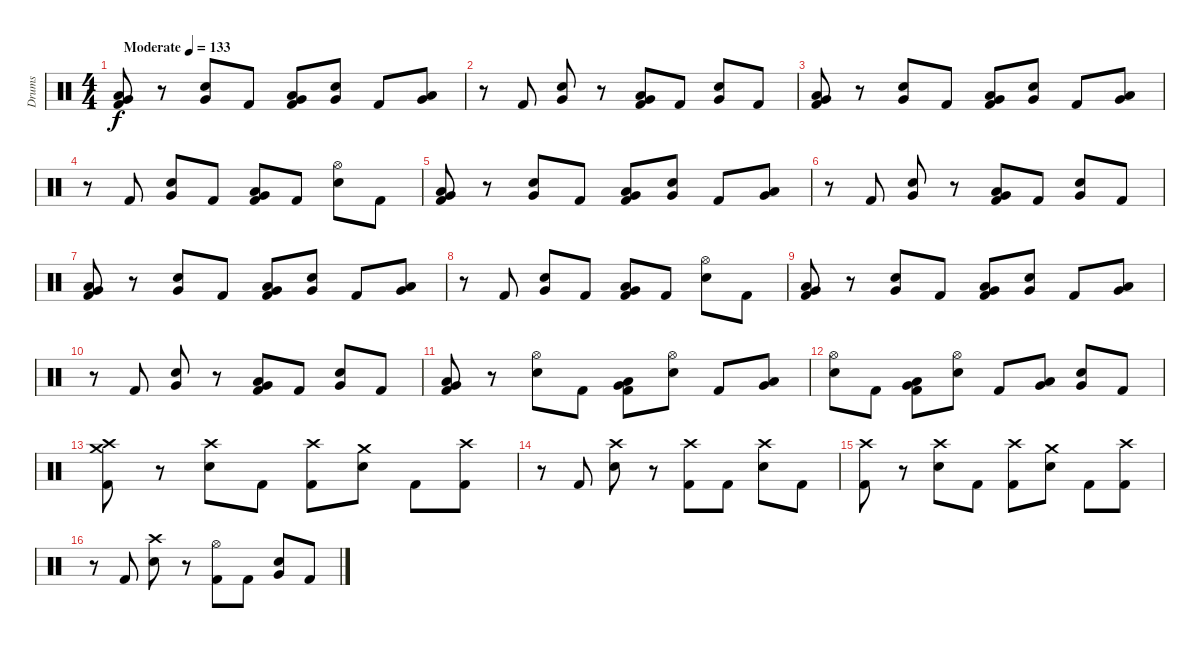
\track ("Drums" "Drums") {instrument percussion}
\staff {score}
\articulation defaults
\ts (4 4)
\tempo (133 "Moderate")
\clef neutral
\ks c
("Very Low Tom (hit)" "Low Tom (hit)" "Kick (hit) 2").8{dy f} r.8 ("Very Low Tom (hit)" "Electric Snare (hit)").8 "Kick (hit) 2".8 ("Very Low Tom (hit)" "Low Tom (hit)" "Kick (hit) 2").8 ("Very Low Tom (hit)" "Electric Snare (hit)").8 "Kick (hit) 2".8 ("Low Tom (hit)" "Very Low Tom (hit)").8 |
r.8 "Kick (hit) 2".8 ("Very Low Tom (hit)" "Electric Snare (hit)").8 r.8 ("Low Tom (hit)" "Very Low Tom (hit)" "Kick (hit) 2").8 "Kick (hit) 2".8 ("Very Low Tom (hit)" "Electric Snare (hit)").8 "Kick (hit) 2".8 |
("Very Low Tom (hit)" "Low Tom (hit)" "Kick (hit) 2").8 r.8 ("Very Low Tom (hit)" "Electric Snare (hit)").8 "Kick (hit) 2".8 ("Very Low Tom (hit)" "Low Tom (hit)" "Kick (hit) 2").8 ("Very Low Tom (hit)" "Electric Snare (hit)").8 "Kick (hit) 2".8 ("Low Tom (hit)" "Very Low Tom (hit)").8 |
r.8 "Kick (hit) 2".8 ("Very Low Tom (hit)" "Electric Snare (hit)").8 "Kick (hit) 2".8 ("Low Tom (hit)" "Very Low Tom (hit)" "Kick (hit) 2").8 "Kick (hit) 2".8 ("Hi-Hat (open)" "Electric Snare (hit)").8 "Kick (hit) 2".8 |
("Very Low Tom (hit)" "Low Tom (hit)" "Kick (hit) 2").8 r.8 ("Very Low Tom (hit)" "Electric Snare (hit)").8 "Kick (hit) 2".8 ("Very Low Tom (hit)" "Low Tom (hit)" "Kick (hit) 2").8 ("Very Low Tom (hit)" "Electric Snare (hit)").8 "Kick (hit) 2".8 ("Low Tom (hit)" "Very Low Tom (hit)").8 |
r.8 "Kick (hit) 2".8 ("Very Low Tom (hit)" "Electric Snare (hit)").8 r.8 ("Low Tom (hit)" "Very Low Tom (hit)" "Kick (hit) 2").8 "Kick (hit) 2".8 ("Very Low Tom (hit)" "Electric Snare (hit)").8 "Kick (hit) 2".8 |
("Very Low Tom (hit)" "Low Tom (hit)" "Kick (hit) 2").8 r.8 ("Very Low Tom (hit)" "Electric Snare (hit)").8 "Kick (hit) 2".8 ("Very Low Tom (hit)" "Low Tom (hit)" "Kick (hit) 2").8 ("Very Low Tom (hit)" "Electric Snare (hit)").8 "Kick (hit) 2".8 ("Low Tom (hit)" "Very Low Tom (hit)").8 |
r.8 "Kick (hit) 2".8 ("Very Low Tom (hit)" "Electric Snare (hit)").8 "Kick (hit) 2".8 ("Low Tom (hit)" "Very Low Tom (hit)" "Kick (hit) 2").8 "Kick (hit) 2".8 ("Hi-Hat (open)" "Electric Snare (hit)").8 "Kick (hit) 2".8 |
("Very Low Tom (hit)" "Low Tom (hit)" "Kick (hit) 2").8 r.8 ("Very Low Tom (hit)" "Electric Snare (hit)").8 "Kick (hit) 2".8 ("Very Low Tom (hit)" "Low Tom (hit)" "Kick (hit) 2").8 ("Very Low Tom (hit)" "Electric Snare (hit)").8 "Kick (hit) 2".8 ("Low Tom (hit)" "Very Low Tom (hit)").8 |
r.8 "Kick (hit) 2".8 ("Very Low Tom (hit)" "Electric Snare (hit)").8 r.8 ("Low Tom (hit)" "Very Low Tom (hit)" "Kick (hit) 2").8 "Kick (hit) 2".8 ("Very Low Tom (hit)" "Electric Snare (hit)").8 "Kick (hit) 2".8 |
("Very Low Tom (hit)" "Low Tom (hit)" "Kick (hit) 2").8 r.8 ("Hi-Hat (open)" "Electric Snare (hit)").8 "Kick (hit) 2".8 ("Very Low Tom (hit)" "Low Tom (hit)" "Kick (hit) 2").8 ("Hi-Hat (open)" "Electric Snare (hit)").8 "Kick (hit) 2".8 ("Low Tom (hit)" "Very Low Tom (hit)").8 |
("Hi-Hat (open)" "Electric Snare (hit)").8 "Kick (hit) 2".8 ("Low Tom (hit)" "Very Low Tom (hit)" "Kick (hit) 2").8 ("Hi-Hat (open)" "Electric Snare (hit)").8 "Kick (hit) 2".8 ("Very Low Tom (hit)" "Low Tom (hit)").8 ("Very Low Tom (hit)" "Electric Snare (hit)").8 "Kick (hit) 2".8 |
("Crash high (hit)" "Crash medium (hit)" "Kick (hit) 2").8 r.8 ("Crash high (hit)" "Electric Snare (hit)").8 "Kick (hit) 2".8 ("Crash high (hit)" "Kick (hit) 2").8 ("Crash medium (hit)" "Electric Snare (hit)").8 "Kick (hit) 2".8 ("Crash high (hit)" "Kick (hit) 2").8 |
r.8 "Kick (hit) 2".8 ("Crash high (hit)" "Electric Snare (hit)").8 r.8 ("Crash high (hit)" "Kick (hit) 2").8 "Kick (hit) 2".8 ("Crash high (hit)" "Electric Snare (hit)").8 "Kick (hit) 2".8 |
("Crash high (hit)" "Kick (hit) 2").8 r.8 ("Crash high (hit)" "Electric Snare (hit)").8 "Kick (hit) 2".8 ("Crash high (hit)" "Kick (hit) 2").8 ("Crash medium (hit)" "Electric Snare (hit)").8 "Kick (hit) 2".8 ("Crash high (hit)" "Kick (hit) 2").8 |
r.8 "Kick (hit) 2".8 ("Crash high (hit)" "Electric Snare (hit)").8 r.8 ("Hi-Hat (open)" "Kick (hit) 2").8 "Kick (hit) 2".8 ("Very Low Tom (hit)" "Electric Snare (hit)").8 "Kick (hit) 2".8
